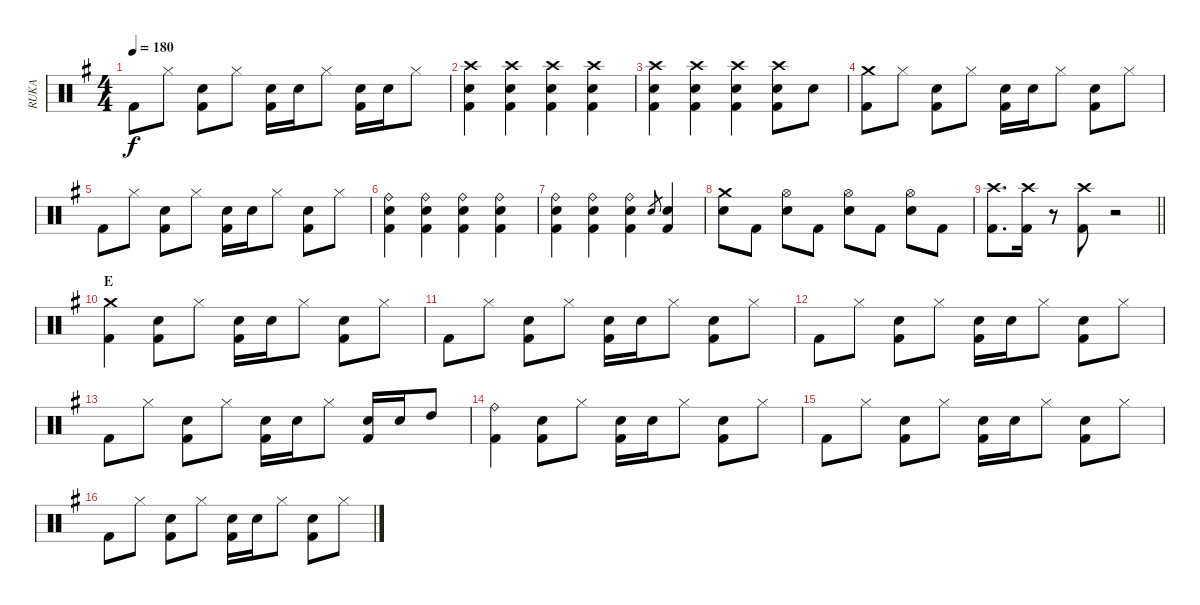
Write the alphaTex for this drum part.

\track ("RUKA" "RUKA") {instrument percussion}
\staff {score}
\articulation defaults
\ts (4 4)
\tempo 180
\clef neutral
\ks g "Kick (hit) 2".8{dy f} "Hi-Hat (closed)".8
("Snare (hit) 2" "Kick (hit) 2").8 "Hi-Hat (closed)".8 ("Snare (hit) 2" "Kick (hit) 2").16 "Snare (hit) 2".16 "Hi-Hat (closed)".8 ("Snare (hit) 2" "Kick (hit) 2").16 "Snare (hit) 2".16 "Hi-Hat (closed)".8 |
("Crash high (hit)" "Snare (hit) 2" "Kick (hit) 2").4 ("Crash high (hit)" "Snare (hit) 2" "Kick (hit) 2").4 ("Crash high (hit)" "Snare (hit) 2" "Kick (hit) 2").4 ("Crash high (hit)" "Snare (hit) 2" "Kick (hit) 2").4 |
("Crash high (hit)" "Snare (hit) 2" "Kick (hit) 2").4 ("Crash high (hit)" "Snare (hit) 2" "Kick (hit) 2").4 ("Crash high (hit)" "Snare (hit) 2" "Kick (hit) 2").4 ("Crash high (hit)" "Snare (hit) 2" "Kick (hit) 2").8 "Snare (hit) 2".8 |
("Crash medium (hit)" "Kick (hit) 2").8 "Hi-Hat (closed)".8 ("Snare (hit) 2" "Kick (hit) 2").8 "Hi-Hat (closed)".8 ("Snare (hit) 2" "Kick (hit) 2").16 "Snare (hit) 2".16 "Hi-Hat (closed)".8 ("Snare (hit) 2" "Kick (hit) 2").8 "Hi-Hat (closed)".8 |
"Kick (hit) 2".8 "Hi-Hat (closed)".8 ("Snare (hit) 2" "Kick (hit) 2").8 "Hi-Hat (closed)".8 ("Snare (hit) 2" "Kick (hit) 2").16 "Snare (hit) 2".16 "Hi-Hat (closed)".8 ("Snare (hit) 2" "Kick (hit) 2").8 "Hi-Hat (closed)".8 |
("Ride (bell)" "Snare (hit) 2" "Kick (hit) 2").4 ("Ride (bell)" "Snare (hit) 2" "Kick (hit) 2").4 ("Ride (bell)" "Snare (hit) 2" "Kick (hit) 2").4 ("Ride (bell)" "Snare (hit) 2" "Kick (hit) 2").4 |
("Ride (bell)" "Snare (hit) 2" "Kick (hit) 2").4 ("Ride (bell)" "Snare (hit) 2" "Kick (hit) 2").4 ("Ride (bell)" "Snare (hit) 2" "Kick (hit) 2").4 "Snare (hit) 2".8{gr} ("Snare (hit) 2" "Kick (hit) 2").4 |
("Crash medium (hit)" "Snare (hit) 2").8 "Kick (hit) 2".8 ("Hi-Hat (open)" "Snare (hit) 2").8 "Kick (hit) 2".8 ("Hi-Hat (open)" "Snare (hit) 2").8 "Kick (hit) 2".8 ("Hi-Hat (open)" "Snare (hit) 2").8 "Kick (hit) 2".8 |
\barLineRight lightlight
("Crash high (hit)" "Kick (hit) 2").8{d} ("Crash high (hit)" "Kick (hit) 2").16 r.8 ("Crash high (hit)" "Kick (hit) 2").8 r.2 |
\section ("" "E")
("Crash medium (hit)" "Kick (hit) 2").4 ("Snare (hit) 2" "Kick (hit) 2").8 "Hi-Hat (closed)".8 ("Snare (hit) 2" "Kick (hit) 2").16 "Snare (hit) 2".16 "Hi-Hat (closed)".8 ("Snare (hit) 2" "Kick (hit) 2").8 "Hi-Hat (closed)".8 |
"Kick (hit) 2".8 "Hi-Hat (closed)".8 ("Snare (hit) 2" "Kick (hit) 2").8 "Hi-Hat (closed)".8 ("Snare (hit) 2" "Kick (hit) 2").16 "Snare (hit) 2".16 "Hi-Hat (closed)".8 ("Snare (hit) 2" "Kick (hit) 2").8 "Hi-Hat (closed)".8 |
"Kick (hit) 2".8 "Hi-Hat (closed)".8 ("Snare (hit) 2" "Kick (hit) 2").8 "Hi-Hat (closed)".8 ("Snare (hit) 2" "Kick (hit) 2").16 "Snare (hit) 2".16 "Hi-Hat (closed)".8 ("Snare (hit) 2" "Kick (hit) 2").8 "Hi-Hat (closed)".8 |
"Kick (hit) 2".8 "Hi-Hat (closed)".8 ("Snare (hit) 2" "Kick (hit) 2").8 "Hi-Hat (closed)".8 ("Snare (hit) 2" "Kick (hit) 2").16 "Snare (hit) 2".16 "Hi-Hat (closed)".8 ("Snare (hit) 2" "Kick (hit) 2").16 "Snare (hit) 2".16 "High Tom (hit)".8 |
("Ride (bell)" "Kick (hit) 2").4 ("Snare (hit) 2" "Kick (hit) 2").8 "Hi-Hat (closed)".8 ("Snare (hit) 2" "Kick (hit) 2").16 "Snare (hit) 2".16 "Hi-Hat (closed)".8 ("Snare (hit) 2" "Kick (hit) 2").8 "Hi-Hat (closed)".8 |
"Kick (hit) 2".8 "Hi-Hat (closed)".8 ("Snare (hit) 2" "Kick (hit) 2").8 "Hi-Hat (closed)".8 ("Snare (hit) 2" "Kick (hit) 2").16 "Snare (hit) 2".16 "Hi-Hat (closed)".8 ("Snare (hit) 2" "Kick (hit) 2").8 "Hi-Hat (closed)".8 |
"Kick (hit) 2".8 "Hi-Hat (closed)".8 ("Snare (hit) 2" "Kick (hit) 2").8 "Hi-Hat (closed)".8 ("Snare (hit) 2" "Kick (hit) 2").16 "Snare (hit) 2".16 "Hi-Hat (closed)".8 ("Snare (hit) 2" "Kick (hit) 2").8 "Hi-Hat (closed)".8
